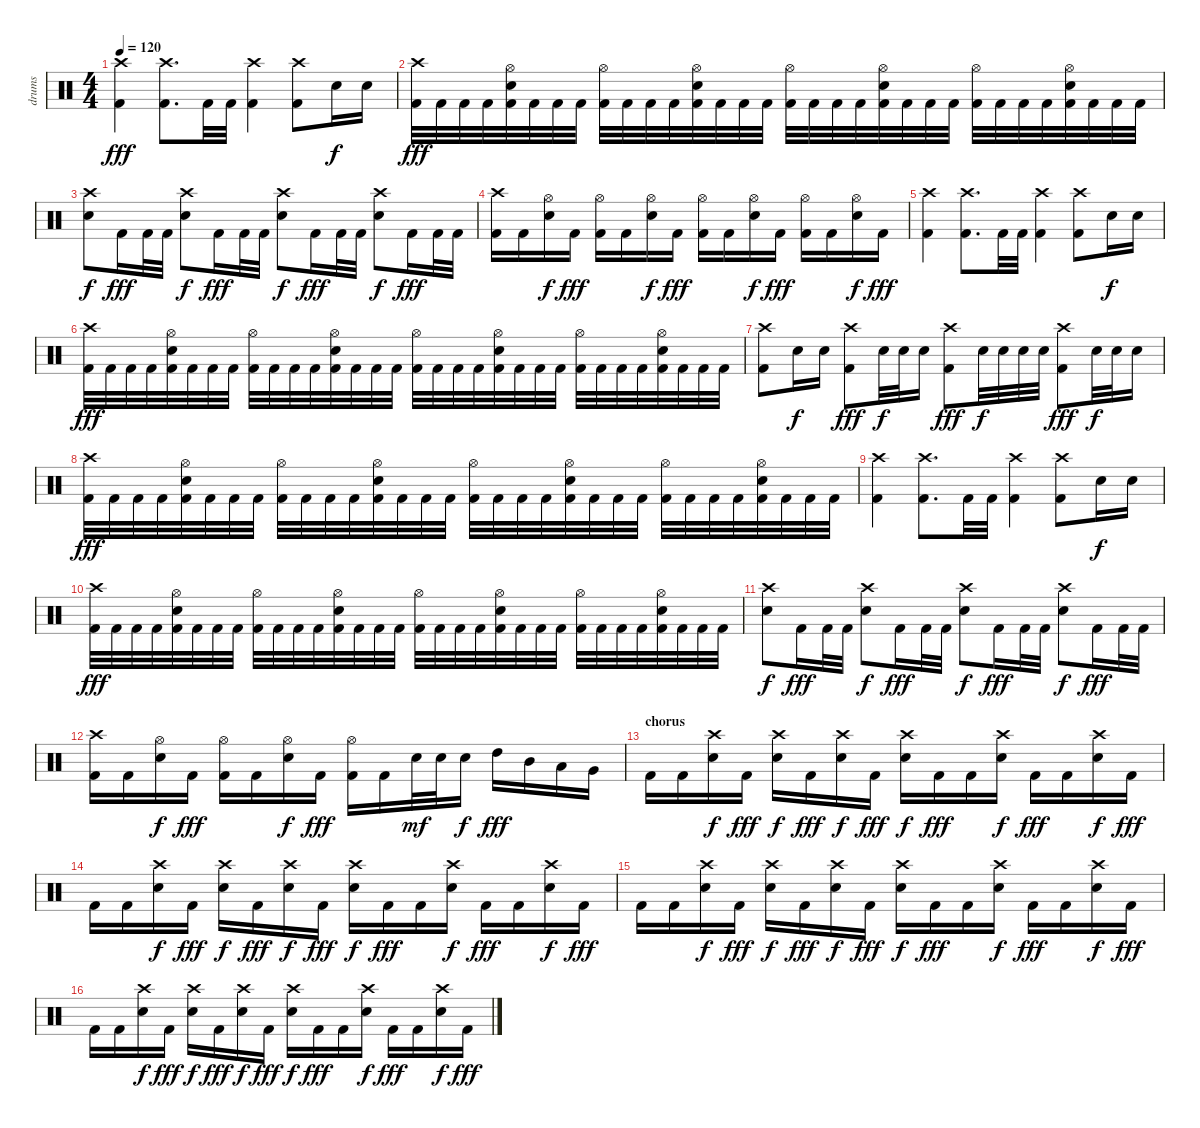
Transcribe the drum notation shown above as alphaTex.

\track ("drums" "drums") {instrument percussion}
\staff {score}
\articulation defaults
\ts (4 4)
\tempo 120
\clef neutral
\ks c
("Crash high (hit)" "Kick (hit) 2").4{dy fff} ("Crash high (hit)" "Kick (hit) 2").8{d} "Kick (hit) 2".32 "Kick (hit) 2".32 ("Crash high (hit)" "Kick (hit) 2").4 ("Crash high (hit)" "Kick (hit) 2").8 "Snare (hit) 2".16{dy f} "Snare (hit) 2".16 |
("Crash high (hit)" "Kick (hit) 2").32{dy fff} "Kick (hit) 2".32 "Kick (hit) 2".32 "Kick (hit) 2".32 ("Hi-Hat (open)" "Snare (hit) 2" "Kick (hit) 2").32 "Kick (hit) 2".32 "Kick (hit) 2".32 "Kick (hit) 2".32 ("Hi-Hat (open)" "Kick (hit) 2").32 "Kick (hit) 2".32 "Kick (hit) 2".32 "Kick (hit) 2".32 ("Hi-Hat (open)" "Snare (hit) 2" "Kick (hit) 2").32 "Kick (hit) 2".32 "Kick (hit) 2".32 "Kick (hit) 2".32 ("Hi-Hat (open)" "Kick (hit) 2").32 "Kick (hit) 2".32 "Kick (hit) 2".32 "Kick (hit) 2".32 ("Hi-Hat (open)" "Snare (hit) 2" "Kick (hit) 2").32 "Kick (hit) 2".32 "Kick (hit) 2".32 "Kick (hit) 2".32 ("Hi-Hat (open)" "Kick (hit) 2").32 "Kick (hit) 2".32 "Kick (hit) 2".32 "Kick (hit) 2".32 ("Hi-Hat (open)" "Snare (hit) 2" "Kick (hit) 2").32 "Kick (hit) 2".32 "Kick (hit) 2".32 "Kick (hit) 2".32 |
("Crash high (hit)" "Snare (hit) 2").8{dy f} "Kick (hit) 2".16{dy fff} "Kick (hit) 2".32 "Kick (hit) 2".32 ("Crash high (hit)" "Snare (hit) 2").8{dy f} "Kick (hit) 2".16{dy fff} "Kick (hit) 2".32 "Kick (hit) 2".32 ("Crash high (hit)" "Snare (hit) 2").8{dy f} "Kick (hit) 2".16{dy fff} "Kick (hit) 2".32 "Kick (hit) 2".32 ("Crash high (hit)" "Snare (hit) 2").8{dy f} "Kick (hit) 2".16{dy fff} "Kick (hit) 2".32 "Kick (hit) 2".32 |
("Crash high (hit)" "Kick (hit) 2").16 "Kick (hit) 2".16 ("Hi-Hat (open)" "Snare (hit) 2").16{dy f} "Kick (hit) 2".16{dy fff} ("Hi-Hat (open)" "Kick (hit) 2").16 "Kick (hit) 2".16 ("Hi-Hat (open)" "Snare (hit) 2").16{dy f} "Kick (hit) 2".16{dy fff} ("Hi-Hat (open)" "Kick (hit) 2").16 "Kick (hit) 2".16 ("Hi-Hat (open)" "Snare (hit) 2").16{dy f} "Kick (hit) 2".16{dy fff} ("Hi-Hat (open)" "Kick (hit) 2").16 "Kick (hit) 2".16 ("Hi-Hat (open)" "Snare (hit) 2").16{dy f} "Kick (hit) 2".16{dy fff} |
("Crash high (hit)" "Kick (hit) 2").4 ("Crash high (hit)" "Kick (hit) 2").8{d} "Kick (hit) 2".32 "Kick (hit) 2".32 ("Crash high (hit)" "Kick (hit) 2").4 ("Crash high (hit)" "Kick (hit) 2").8 "Snare (hit) 2".16{dy f} "Snare (hit) 2".16 |
("Crash high (hit)" "Kick (hit) 2").32{dy fff} "Kick (hit) 2".32 "Kick (hit) 2".32 "Kick (hit) 2".32 ("Hi-Hat (open)" "Snare (hit) 2" "Kick (hit) 2").32 "Kick (hit) 2".32 "Kick (hit) 2".32 "Kick (hit) 2".32 ("Hi-Hat (open)" "Kick (hit) 2").32 "Kick (hit) 2".32 "Kick (hit) 2".32 "Kick (hit) 2".32 ("Hi-Hat (open)" "Snare (hit) 2" "Kick (hit) 2").32 "Kick (hit) 2".32 "Kick (hit) 2".32 "Kick (hit) 2".32 ("Hi-Hat (open)" "Kick (hit) 2").32 "Kick (hit) 2".32 "Kick (hit) 2".32 "Kick (hit) 2".32 ("Hi-Hat (open)" "Snare (hit) 2" "Kick (hit) 2").32 "Kick (hit) 2".32 "Kick (hit) 2".32 "Kick (hit) 2".32 ("Hi-Hat (open)" "Kick (hit) 2").32 "Kick (hit) 2".32 "Kick (hit) 2".32 "Kick (hit) 2".32 ("Hi-Hat (open)" "Snare (hit) 2" "Kick (hit) 2").32 "Kick (hit) 2".32 "Kick (hit) 2".32 "Kick (hit) 2".32 |
("Crash high (hit)" "Kick (hit) 2").8 "Snare (hit) 2".16{dy f} "Snare (hit) 2".16 ("Crash high (hit)" "Kick (hit) 2").8{dy fff} "Snare (hit) 2".32{dy f} "Snare (hit) 2".32 "Snare (hit) 2".16 ("Crash high (hit)" "Kick (hit) 2").8{dy fff} "Snare (hit) 2".32{dy f} "Snare (hit) 2".32 "Snare (hit) 2".32 "Snare (hit) 2".32 ("Crash high (hit)" "Kick (hit) 2").8{dy fff} "Snare (hit) 2".32{dy f} "Snare (hit) 2".32 "Snare (hit) 2".16 |
("Crash high (hit)" "Kick (hit) 2").32{dy fff} "Kick (hit) 2".32 "Kick (hit) 2".32 "Kick (hit) 2".32 ("Hi-Hat (open)" "Snare (hit) 2" "Kick (hit) 2").32 "Kick (hit) 2".32 "Kick (hit) 2".32 "Kick (hit) 2".32 ("Hi-Hat (open)" "Kick (hit) 2").32 "Kick (hit) 2".32 "Kick (hit) 2".32 "Kick (hit) 2".32 ("Hi-Hat (open)" "Snare (hit) 2" "Kick (hit) 2").32 "Kick (hit) 2".32 "Kick (hit) 2".32 "Kick (hit) 2".32 ("Hi-Hat (open)" "Kick (hit) 2").32 "Kick (hit) 2".32 "Kick (hit) 2".32 "Kick (hit) 2".32 ("Hi-Hat (open)" "Snare (hit) 2" "Kick (hit) 2").32 "Kick (hit) 2".32 "Kick (hit) 2".32 "Kick (hit) 2".32 ("Hi-Hat (open)" "Kick (hit) 2").32 "Kick (hit) 2".32 "Kick (hit) 2".32 "Kick (hit) 2".32 ("Hi-Hat (open)" "Snare (hit) 2" "Kick (hit) 2").32 "Kick (hit) 2".32 "Kick (hit) 2".32 "Kick (hit) 2".32 |
("Crash high (hit)" "Kick (hit) 2").4 ("Crash high (hit)" "Kick (hit) 2").8{d} "Kick (hit) 2".32 "Kick (hit) 2".32 ("Crash high (hit)" "Kick (hit) 2").4 ("Crash high (hit)" "Kick (hit) 2").8 "Snare (hit) 2".16{dy f} "Snare (hit) 2".16 |
("Crash high (hit)" "Kick (hit) 2").32{dy fff} "Kick (hit) 2".32 "Kick (hit) 2".32 "Kick (hit) 2".32 ("Hi-Hat (open)" "Snare (hit) 2" "Kick (hit) 2").32 "Kick (hit) 2".32 "Kick (hit) 2".32 "Kick (hit) 2".32 ("Hi-Hat (open)" "Kick (hit) 2").32 "Kick (hit) 2".32 "Kick (hit) 2".32 "Kick (hit) 2".32 ("Hi-Hat (open)" "Snare (hit) 2" "Kick (hit) 2").32 "Kick (hit) 2".32 "Kick (hit) 2".32 "Kick (hit) 2".32 ("Hi-Hat (open)" "Kick (hit) 2").32 "Kick (hit) 2".32 "Kick (hit) 2".32 "Kick (hit) 2".32 ("Hi-Hat (open)" "Snare (hit) 2" "Kick (hit) 2").32 "Kick (hit) 2".32 "Kick (hit) 2".32 "Kick (hit) 2".32 ("Hi-Hat (open)" "Kick (hit) 2").32 "Kick (hit) 2".32 "Kick (hit) 2".32 "Kick (hit) 2".32 ("Hi-Hat (open)" "Snare (hit) 2" "Kick (hit) 2").32 "Kick (hit) 2".32 "Kick (hit) 2".32 "Kick (hit) 2".32 |
("Crash high (hit)" "Snare (hit) 2").8{dy f} "Kick (hit) 2".16{dy fff} "Kick (hit) 2".32 "Kick (hit) 2".32 ("Crash high (hit)" "Snare (hit) 2").8{dy f} "Kick (hit) 2".16{dy fff} "Kick (hit) 2".32 "Kick (hit) 2".32 ("Crash high (hit)" "Snare (hit) 2").8{dy f} "Kick (hit) 2".16{dy fff} "Kick (hit) 2".32 "Kick (hit) 2".32 ("Crash high (hit)" "Snare (hit) 2").8{dy f} "Kick (hit) 2".16{dy fff} "Kick (hit) 2".32 "Kick (hit) 2".32 |
("Crash high (hit)" "Kick (hit) 2").16 "Kick (hit) 2".16 ("Hi-Hat (open)" "Snare (hit) 2").16{dy f} "Kick (hit) 2".16{dy fff} ("Hi-Hat (open)" "Kick (hit) 2").16 "Kick (hit) 2".16 ("Hi-Hat (open)" "Snare (hit) 2").16{dy f} "Kick (hit) 2".16{dy fff} ("Hi-Hat (open)" "Kick (hit) 2").16 "Kick (hit) 2".16 "Snare (hit) 2".32{dy mf} "Snare (hit) 2".32 "Snare (hit) 2".16{dy f} "High Tom (hit)".16{dy fff} "Mid Tom (hit)".16 "Low Tom (hit)".16 "Very Low Tom (hit)".16 |
\section ("" "chorus")
"Kick (hit) 2".16 "Kick (hit) 2".16 ("Crash high (hit)" "Snare (hit) 2").16{dy f} "Kick (hit) 2".16{dy fff} ("Crash high (hit)" "Snare (hit) 2").16{dy f} "Kick (hit) 2".16{dy fff} ("Crash high (hit)" "Snare (hit) 2").16{dy f} "Kick (hit) 2".16{dy fff} ("Crash high (hit)" "Snare (hit) 2").16{dy f} "Kick (hit) 2".16{dy fff} "Kick (hit) 2".16 ("Crash high (hit)" "Snare (hit) 2").16{dy f} "Kick (hit) 2".16{dy fff} "Kick (hit) 2".16 ("Crash high (hit)" "Snare (hit) 2").16{dy f} "Kick (hit) 2".16{dy fff} |
"Kick (hit) 2".16 "Kick (hit) 2".16 ("Crash high (hit)" "Snare (hit) 2").16{dy f} "Kick (hit) 2".16{dy fff} ("Crash high (hit)" "Snare (hit) 2").16{dy f} "Kick (hit) 2".16{dy fff} ("Crash high (hit)" "Snare (hit) 2").16{dy f} "Kick (hit) 2".16{dy fff} ("Crash high (hit)" "Snare (hit) 2").16{dy f} "Kick (hit) 2".16{dy fff} "Kick (hit) 2".16 ("Crash high (hit)" "Snare (hit) 2").16{dy f} "Kick (hit) 2".16{dy fff} "Kick (hit) 2".16 ("Crash high (hit)" "Snare (hit) 2").16{dy f} "Kick (hit) 2".16{dy fff} |
"Kick (hit) 2".16 "Kick (hit) 2".16 ("Crash high (hit)" "Snare (hit) 2").16{dy f} "Kick (hit) 2".16{dy fff} ("Crash high (hit)" "Snare (hit) 2").16{dy f} "Kick (hit) 2".16{dy fff} ("Crash high (hit)" "Snare (hit) 2").16{dy f} "Kick (hit) 2".16{dy fff} ("Crash high (hit)" "Snare (hit) 2").16{dy f} "Kick (hit) 2".16{dy fff} "Kick (hit) 2".16 ("Crash high (hit)" "Snare (hit) 2").16{dy f} "Kick (hit) 2".16{dy fff} "Kick (hit) 2".16 ("Crash high (hit)" "Snare (hit) 2").16{dy f} "Kick (hit) 2".16{dy fff} |
"Kick (hit) 2".16 "Kick (hit) 2".16 ("Crash high (hit)" "Snare (hit) 2").16{dy f} "Kick (hit) 2".16{dy fff} ("Crash high (hit)" "Snare (hit) 2").16{dy f} "Kick (hit) 2".16{dy fff} ("Crash high (hit)" "Snare (hit) 2").16{dy f} "Kick (hit) 2".16{dy fff} ("Crash high (hit)" "Snare (hit) 2").16{dy f} "Kick (hit) 2".16{dy fff} "Kick (hit) 2".16 ("Crash high (hit)" "Snare (hit) 2").16{dy f} "Kick (hit) 2".16{dy fff} "Kick (hit) 2".16 ("Crash high (hit)" "Snare (hit) 2").16{dy f} "Kick (hit) 2".16{dy fff}
